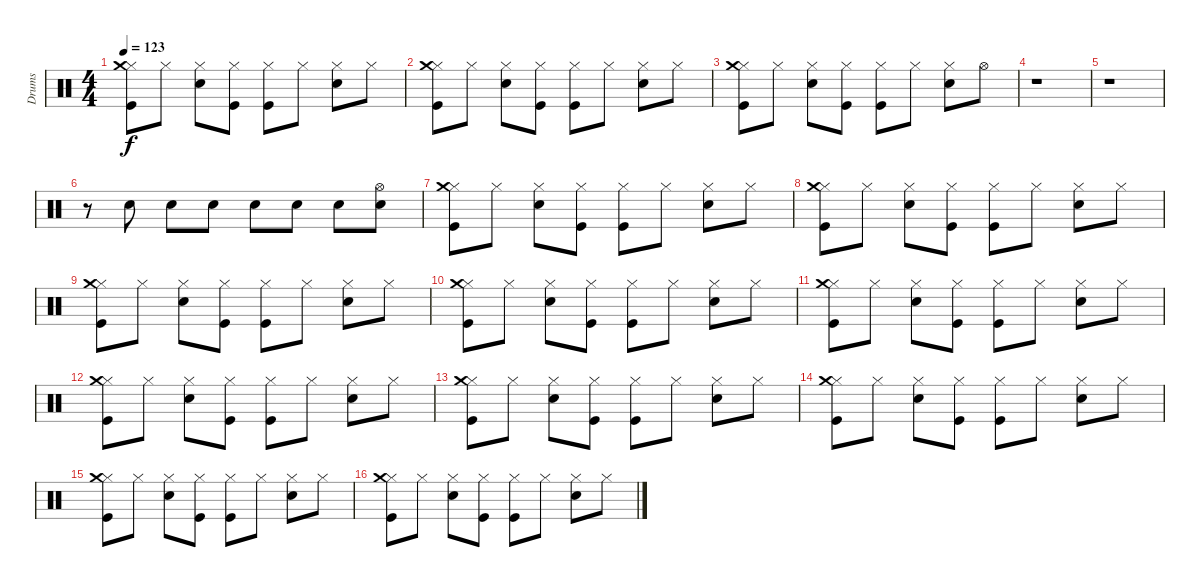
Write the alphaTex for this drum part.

\track ("Drums" "Drums") {instrument percussion}
\staff {score}
\articulation defaults
\ts (4 4)
\tempo 123
\clef neutral
\ks c
("Hi-Hat (closed)" "Crash medium (hit)" "Kick (hit)").8{dy f} "Hi-Hat (closed)".8 ("Hi-Hat (closed)" "Snare (hit) 2").8 ("Hi-Hat (closed)" "Kick (hit)").8 ("Hi-Hat (closed)" "Kick (hit)").8 "Hi-Hat (closed)".8 ("Hi-Hat (closed)" "Snare (hit) 2").8 "Hi-Hat (closed)".8 |
("Hi-Hat (closed)" "Crash medium (hit)" "Kick (hit)").8 "Hi-Hat (closed)".8 ("Hi-Hat (closed)" "Snare (hit) 2").8 ("Hi-Hat (closed)" "Kick (hit)").8 ("Hi-Hat (closed)" "Kick (hit)").8 "Hi-Hat (closed)".8 ("Hi-Hat (closed)" "Snare (hit) 2").8 "Hi-Hat (closed)".8 |
("Hi-Hat (closed)" "Crash medium (hit)" "Kick (hit)").8 "Hi-Hat (closed)".8 ("Hi-Hat (closed)" "Snare (hit) 2").8 ("Hi-Hat (closed)" "Kick (hit)").8 ("Hi-Hat (closed)" "Kick (hit)").8 "Hi-Hat (closed)".8 ("Hi-Hat (closed)" "Snare (hit) 2").8 "Hi-Hat (open)".8 |
r.1 |
r.1 |
r.8 "Snare (hit) 2".8 "Snare (hit) 2".8 "Snare (hit) 2".8 "Snare (hit) 2".8 "Snare (hit) 2".8 "Snare (hit) 2".8 ("Hi-Hat (open)" "Snare (hit) 2").8 |
("Hi-Hat (closed)" "Crash medium (hit)" "Kick (hit)").8 "Hi-Hat (closed)".8 ("Hi-Hat (closed)" "Snare (hit) 2").8 ("Hi-Hat (closed)" "Kick (hit)").8 ("Hi-Hat (closed)" "Kick (hit)").8 "Hi-Hat (closed)".8 ("Hi-Hat (closed)" "Snare (hit) 2").8 "Hi-Hat (closed)".8 |
("Hi-Hat (closed)" "Crash medium (hit)" "Kick (hit)").8 "Hi-Hat (closed)".8 ("Hi-Hat (closed)" "Snare (hit) 2").8 ("Hi-Hat (closed)" "Kick (hit)").8 ("Hi-Hat (closed)" "Kick (hit)").8 "Hi-Hat (closed)".8 ("Hi-Hat (closed)" "Snare (hit) 2").8 "Hi-Hat (closed)".8 |
("Hi-Hat (closed)" "Crash medium (hit)" "Kick (hit)").8 "Hi-Hat (closed)".8 ("Hi-Hat (closed)" "Snare (hit) 2").8 ("Hi-Hat (closed)" "Kick (hit)").8 ("Hi-Hat (closed)" "Kick (hit)").8 "Hi-Hat (closed)".8 ("Hi-Hat (closed)" "Snare (hit) 2").8 "Hi-Hat (closed)".8 |
("Hi-Hat (closed)" "Crash medium (hit)" "Kick (hit)").8 "Hi-Hat (closed)".8 ("Hi-Hat (closed)" "Snare (hit) 2").8 ("Hi-Hat (closed)" "Kick (hit)").8 ("Hi-Hat (closed)" "Kick (hit)").8 "Hi-Hat (closed)".8 ("Hi-Hat (closed)" "Snare (hit) 2").8 "Hi-Hat (closed)".8 |
("Hi-Hat (closed)" "Crash medium (hit)" "Kick (hit)").8 "Hi-Hat (closed)".8 ("Hi-Hat (closed)" "Snare (hit) 2").8 ("Hi-Hat (closed)" "Kick (hit)").8 ("Hi-Hat (closed)" "Kick (hit)").8 "Hi-Hat (closed)".8 ("Hi-Hat (closed)" "Snare (hit) 2").8 "Hi-Hat (closed)".8 |
("Hi-Hat (closed)" "Crash medium (hit)" "Kick (hit)").8 "Hi-Hat (closed)".8 ("Hi-Hat (closed)" "Snare (hit) 2").8 ("Hi-Hat (closed)" "Kick (hit)").8 ("Hi-Hat (closed)" "Kick (hit)").8 "Hi-Hat (closed)".8 ("Hi-Hat (closed)" "Snare (hit) 2").8 "Hi-Hat (closed)".8 |
("Hi-Hat (closed)" "Crash medium (hit)" "Kick (hit)").8 "Hi-Hat (closed)".8 ("Hi-Hat (closed)" "Snare (hit) 2").8 ("Hi-Hat (closed)" "Kick (hit)").8 ("Hi-Hat (closed)" "Kick (hit)").8 "Hi-Hat (closed)".8 ("Hi-Hat (closed)" "Snare (hit) 2").8 "Hi-Hat (closed)".8 |
("Hi-Hat (closed)" "Crash medium (hit)" "Kick (hit)").8 "Hi-Hat (closed)".8 ("Hi-Hat (closed)" "Snare (hit) 2").8 ("Hi-Hat (closed)" "Kick (hit)").8 ("Hi-Hat (closed)" "Kick (hit)").8 "Hi-Hat (closed)".8 ("Hi-Hat (closed)" "Snare (hit) 2").8 "Hi-Hat (closed)".8 |
("Hi-Hat (closed)" "Crash medium (hit)" "Kick (hit)").8 "Hi-Hat (closed)".8 ("Hi-Hat (closed)" "Snare (hit) 2").8 ("Hi-Hat (closed)" "Kick (hit)").8 ("Hi-Hat (closed)" "Kick (hit)").8 "Hi-Hat (closed)".8 ("Hi-Hat (closed)" "Snare (hit) 2").8 "Hi-Hat (closed)".8 |
("Hi-Hat (closed)" "Crash medium (hit)" "Kick (hit)").8 "Hi-Hat (closed)".8 ("Hi-Hat (closed)" "Snare (hit) 2").8 ("Hi-Hat (closed)" "Kick (hit)").8 ("Hi-Hat (closed)" "Kick (hit)").8 "Hi-Hat (closed)".8 ("Hi-Hat (closed)" "Snare (hit) 2").8 "Hi-Hat (closed)".8
